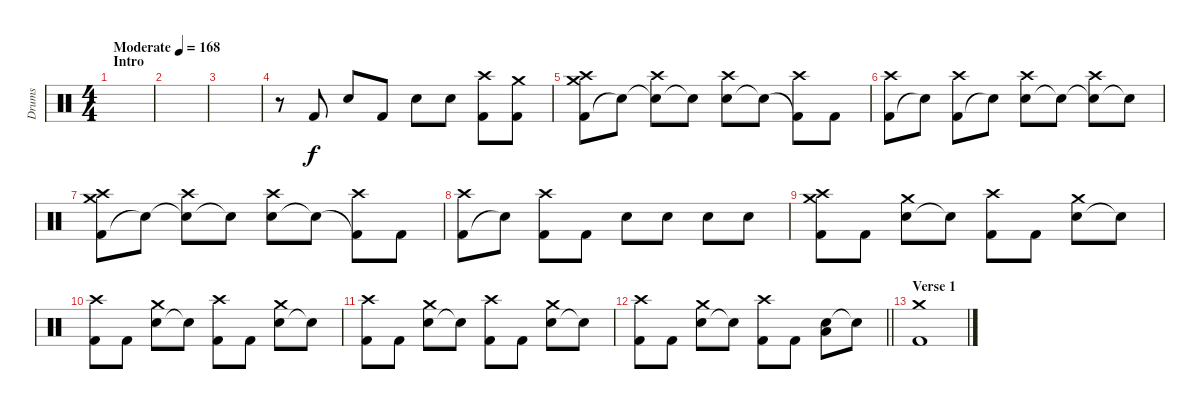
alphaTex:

\track ("Drums" "Drums") {instrument percussion}
\staff {score}
\articulation defaults
\ts (4 4)
\section ("" "Intro")
\tempo (168 "Moderate")
\clef neutral
\ks c
|
|
|
r.8 "Kick (hit) 2".8 "Electric Snare (hit)".8 "Kick (hit) 2".8 "Electric Snare (hit)".8 "Electric Snare (hit)".8 ("Kick (hit) 2" "Crash high (hit)").8 ("Kick (hit) 2" "Crash medium (hit)").8 |
("Kick (hit) 2" "Crash medium (hit)" "Crash high (hit)").8 "Snare (hit)"{t}.8 ("Electric Snare (hit)"{t} "Crash high (hit)").8 "Snare (hit)"{t}.8 ("Electric Snare (hit)" "Crash high (hit)").8 "Snare (hit)"{t}.8 ("Kick (hit) 2"{t} "Crash high (hit)").8 "Kick (hit) 2".8 |
("Kick (hit) 2" "Crash high (hit)").8 "Snare (hit)"{t}.8 ("Kick (hit) 2" "Crash high (hit)").8 "Snare (hit)"{t}.8 ("Electric Snare (hit)" "Crash high (hit)").8 "Snare (hit)"{t}.8 ("Snare (hit)"{t} "Crash high (hit)").8 "Snare (hit)"{t}.8 |
("Kick (hit) 2" "Crash medium (hit)" "Crash high (hit)").8 "Snare (hit)"{t}.8 ("Electric Snare (hit)"{t} "Crash high (hit)").8 "Snare (hit)"{t}.8 ("Electric Snare (hit)" "Crash high (hit)").8 "Snare (hit)"{t}.8 ("Kick (hit) 2"{t} "Crash high (hit)").8 "Kick (hit) 2".8 |
("Kick (hit) 2" "Crash high (hit)").8 "Snare (hit)"{t}.8 ("Kick (hit) 2" "Crash high (hit)").8 "Kick (hit) 2".8 "Electric Snare (hit)".8 "Electric Snare (hit)".8 "Electric Snare (hit)".8 "Electric Snare (hit)".8 |
("Kick (hit) 2" "Crash medium (hit)" "Crash high (hit)").8 "Kick (hit) 2".8 ("Electric Snare (hit)" "Crash medium (hit)").8 "Snare (hit)"{t}.8 ("Kick (hit) 2" "Crash high (hit)").8 "Kick (hit) 2".8 ("Electric Snare (hit)" "Crash medium (hit)").8 "Snare (hit)"{t}.8 |
("Kick (hit) 2" "Crash high (hit)").8 "Kick (hit) 2".8 ("Electric Snare (hit)" "Crash medium (hit)").8 "Snare (hit)"{t}.8 ("Kick (hit) 2" "Crash high (hit)").8 "Kick (hit) 2".8 ("Electric Snare (hit)" "Crash medium (hit)").8 "Snare (hit)"{t}.8 |
("Kick (hit) 2" "Crash high (hit)").8 "Kick (hit) 2".8 ("Electric Snare (hit)" "Crash medium (hit)").8 "Snare (hit)"{t}.8 ("Kick (hit) 2" "Crash high (hit)").8 "Kick (hit) 2".8 ("Electric Snare (hit)" "Crash medium (hit)").8 "Snare (hit)"{t}.8 |
\barLineRight lightlight
("Kick (hit) 2" "Crash high (hit)").8 "Kick (hit) 2".8 ("Electric Snare (hit)" "Crash medium (hit)").8 "Snare (hit)"{t}.8 ("Kick (hit) 2" "Crash high (hit)").8 "Kick (hit) 2".8 ("Electric Snare (hit)" "Low Floor Tom (hit)").8 "Snare (hit)"{t}.8 |
\section ("" "Verse 1")
("Kick (hit) 2" "Crash medium (hit)").1
